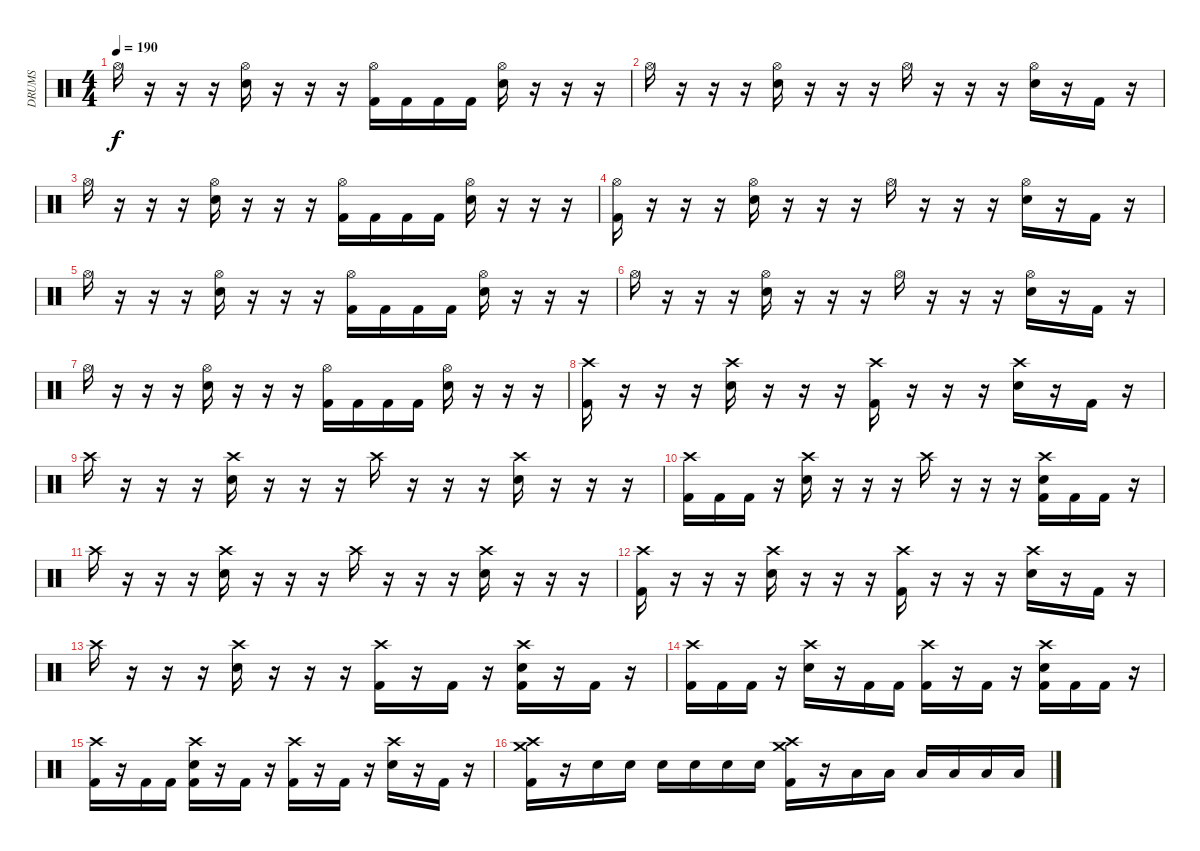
\track ("DRUMS" "DRUMS") {instrument percussion}
\staff {score}
\articulation defaults
\ts (4 4)
\tempo 190
\clef neutral
\ks c "Hi-Hat (open)".16{dy f}
r.16 r.16 r.16 ("Hi-Hat (open)" "Electric Snare (hit)").16 r.16 r.16 r.16 ("Hi-Hat (open)" "Kick (hit) 2").16 "Kick (hit) 2".16 "Kick (hit) 2".16 "Kick (hit) 2".16 ("Hi-Hat (open)" "Electric Snare (hit)").16 r.16 r.16 r.16 |
"Hi-Hat (open)".16 r.16 r.16 r.16 ("Hi-Hat (open)" "Electric Snare (hit)").16 r.16 r.16 r.16 "Hi-Hat (open)".16 r.16 r.16 r.16 ("Hi-Hat (open)" "Electric Snare (hit)").16 r.16 "Kick (hit) 2".16 r.16 |
"Hi-Hat (open)".16 r.16 r.16 r.16 ("Hi-Hat (open)" "Electric Snare (hit)").16 r.16 r.16 r.16 ("Hi-Hat (open)" "Kick (hit) 2").16 "Kick (hit) 2".16 "Kick (hit) 2".16 "Kick (hit) 2".16 ("Hi-Hat (open)" "Electric Snare (hit)").16 r.16 r.16 r.16 |
("Hi-Hat (open)" "Kick (hit) 2").16 r.16 r.16 r.16 ("Hi-Hat (open)" "Electric Snare (hit)").16 r.16 r.16 r.16 "Hi-Hat (open)".16 r.16 r.16 r.16 ("Hi-Hat (open)" "Electric Snare (hit)").16 r.16 "Kick (hit) 2".16 r.16 |
"Hi-Hat (open)".16 r.16 r.16 r.16 ("Hi-Hat (open)" "Electric Snare (hit)").16 r.16 r.16 r.16 ("Hi-Hat (open)" "Kick (hit) 2").16 "Kick (hit) 2".16 "Kick (hit) 2".16 "Kick (hit) 2".16 ("Hi-Hat (open)" "Electric Snare (hit)").16 r.16 r.16 r.16 |
"Hi-Hat (open)".16 r.16 r.16 r.16 ("Hi-Hat (open)" "Electric Snare (hit)").16 r.16 r.16 r.16 "Hi-Hat (open)".16 r.16 r.16 r.16 ("Hi-Hat (open)" "Electric Snare (hit)").16 r.16 "Kick (hit) 2".16 r.16 |
"Hi-Hat (open)".16 r.16 r.16 r.16 ("Hi-Hat (open)" "Electric Snare (hit)").16 r.16 r.16 r.16 ("Hi-Hat (open)" "Kick (hit) 2").16 "Kick (hit) 2".16 "Kick (hit) 2".16 "Kick (hit) 2".16 ("Hi-Hat (open)" "Electric Snare (hit)").16 r.16 r.16 r.16 |
("Crash high (hit)" "Kick (hit) 2").16 r.16 r.16 r.16 ("Crash high (hit)" "Electric Snare (hit)").16 r.16 r.16 r.16 ("Crash high (hit)" "Kick (hit) 2").16 r.16 r.16 r.16 ("Crash high (hit)" "Electric Snare (hit)").16 r.16 "Kick (hit) 2".16 r.16 |
"Crash high (hit)".16 r.16 r.16 r.16 ("Crash high (hit)" "Electric Snare (hit)").16 r.16 r.16 r.16 "Crash high (hit)".16 r.16 r.16 r.16 ("Crash high (hit)" "Electric Snare (hit)").16 r.16 r.16 r.16 |
("Crash high (hit)" "Kick (hit) 2").16 "Kick (hit) 2".16 "Kick (hit) 2".16 r.16 ("Crash high (hit)" "Electric Snare (hit)").16 r.16 r.16 r.16 "Crash high (hit)".16 r.16 r.16 r.16 ("Crash high (hit)" "Electric Snare (hit)" "Kick (hit) 2").16 "Kick (hit) 2".16 "Kick (hit) 2".16 r.16 |
"Crash high (hit)".16 r.16 r.16 r.16 ("Crash high (hit)" "Electric Snare (hit)").16 r.16 r.16 r.16 "Crash high (hit)".16 r.16 r.16 r.16 ("Crash high (hit)" "Electric Snare (hit)").16 r.16 r.16 r.16 |
("Crash high (hit)" "Kick (hit) 2").16 r.16 r.16 r.16 ("Crash high (hit)" "Electric Snare (hit)").16 r.16 r.16 r.16 ("Crash high (hit)" "Kick (hit) 2").16 r.16 r.16 r.16 ("Crash high (hit)" "Electric Snare (hit)").16 r.16 "Kick (hit) 2".16 r.16 |
"Crash high (hit)".16 r.16 r.16 r.16 ("Crash high (hit)" "Electric Snare (hit)").16 r.16 r.16 r.16 ("Crash high (hit)" "Kick (hit) 2").16 r.16 "Kick (hit) 2".16 r.16 ("Crash high (hit)" "Electric Snare (hit)" "Kick (hit) 2").16 r.16 "Kick (hit) 2".16 r.16 |
("Crash high (hit)" "Kick (hit) 2").16 "Kick (hit) 2".16 "Kick (hit) 2".16 r.16 ("Crash high (hit)" "Electric Snare (hit)").16 r.16 "Kick (hit) 2".16 "Kick (hit) 2".16 ("Crash high (hit)" "Kick (hit) 2").16 r.16 "Kick (hit) 2".16 r.16 ("Crash high (hit)" "Electric Snare (hit)" "Kick (hit) 2").16 "Kick (hit) 2".16 "Kick (hit) 2".16 r.16 |
("Crash high (hit)" "Kick (hit) 2").16 r.16 "Kick (hit) 2".16 "Kick (hit) 2".16 ("Crash high (hit)" "Electric Snare (hit)" "Kick (hit) 2").16 r.16 "Kick (hit) 2".16 r.16 ("Crash high (hit)" "Kick (hit) 2").16 r.16 "Kick (hit) 2".16 r.16 ("Crash high (hit)" "Electric Snare (hit)").16 r.16 "Kick (hit) 2".16 r.16 |
("Crash high (hit)" "Crash medium (hit)" "Kick (hit) 2").16 r.16 "Electric Snare (hit)".16 "Electric Snare (hit)".16 "Electric Snare (hit)".16 "Electric Snare (hit)".16 "Electric Snare (hit)".16 "Electric Snare (hit)".16 ("Crash high (hit)" "Crash medium (hit)" "Kick (hit) 2").16 r.16 "Low Tom (hit)".16 "Low Tom (hit)".16 "Low Tom (hit)".16 "Low Tom (hit)".16 "Low Tom (hit)".16 "Low Tom (hit)".16
